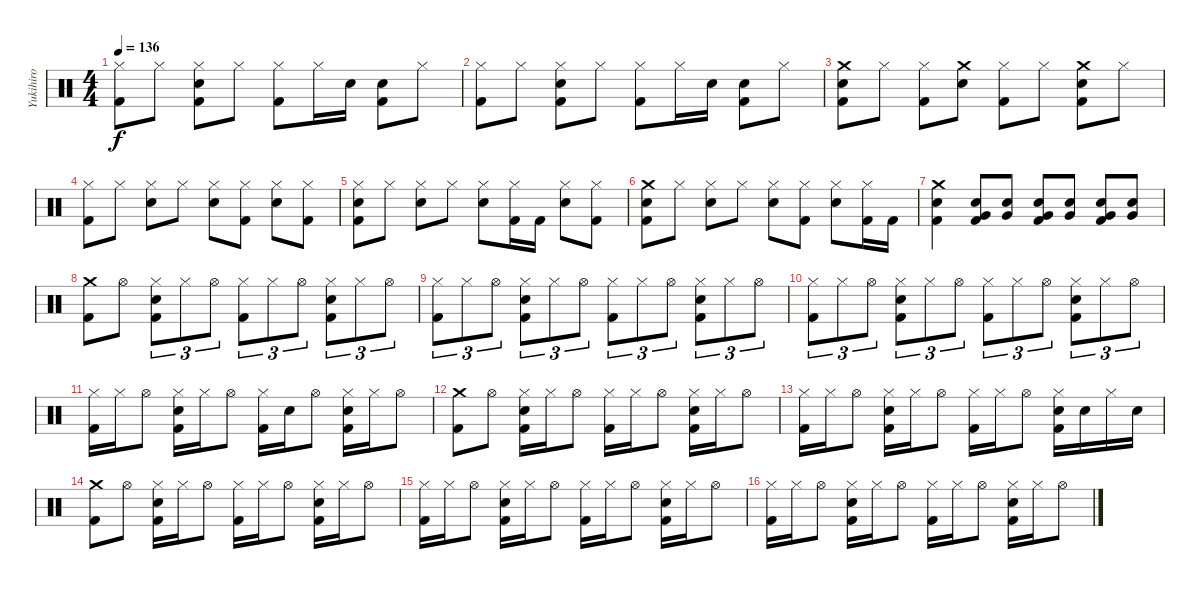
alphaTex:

\track ("Yukihiro" "Yukihiro") {instrument percussion}
\staff {score}
\articulation defaults
\ts (4 4)
\tempo 136
\clef neutral
\ks c
("Hi-Hat (closed)" "Kick (hit) 2").8{dy f} "Hi-Hat (closed)".8 ("Hi-Hat (closed)" "Snare (hit) 2" "Kick (hit) 2").8 "Hi-Hat (closed)".8 ("Hi-Hat (closed)" "Kick (hit) 2").8 "Hi-Hat (closed)".16 "Snare (hit) 2".16 ("Snare (hit) 2" "Kick (hit) 2").8 "Hi-Hat (closed)".8 |
("Hi-Hat (closed)" "Kick (hit) 2").8 "Hi-Hat (closed)".8 ("Hi-Hat (closed)" "Snare (hit) 2" "Kick (hit) 2").8 "Hi-Hat (closed)".8 ("Hi-Hat (closed)" "Kick (hit) 2").8 "Hi-Hat (closed)".16 "Snare (hit) 2".16 ("Snare (hit) 2" "Kick (hit) 2").8 "Hi-Hat (closed)".8 |
("Crash medium (hit)" "Snare (hit) 2" "Kick (hit) 2").8 "Hi-Hat (closed)".8 ("Hi-Hat (closed)" "Kick (hit) 2").8 ("Crash medium (hit)" "Snare (hit) 2").8 ("Hi-Hat (closed)" "Kick (hit) 2").8 "Hi-Hat (closed)".8 ("Crash medium (hit)" "Snare (hit) 2" "Kick (hit) 2").8 "Hi-Hat (closed)".8 |
("Hi-Hat (closed)" "Kick (hit) 2").8 "Hi-Hat (closed)".8 ("Hi-Hat (closed)" "Snare (hit) 2").8 "Hi-Hat (closed)".8 ("Hi-Hat (closed)" "Snare (hit) 2").8 ("Hi-Hat (closed)" "Kick (hit) 2").8 ("Hi-Hat (closed)" "Snare (hit) 2").8 ("Hi-Hat (closed)" "Kick (hit) 2").8 |
("Hi-Hat (closed)" "Snare (hit) 2" "Kick (hit) 2").8 "Hi-Hat (closed)".8 ("Hi-Hat (closed)" "Snare (hit) 2").8 "Hi-Hat (closed)".8 ("Hi-Hat (closed)" "Snare (hit) 2").8 ("Hi-Hat (closed)" "Kick (hit) 2").16 "Kick (hit) 2".16 ("Hi-Hat (closed)" "Snare (hit) 2").8 ("Hi-Hat (closed)" "Kick (hit) 2").8 |
("Crash medium (hit)" "Snare (hit) 2" "Kick (hit) 2").8 "Hi-Hat (closed)".8 ("Hi-Hat (closed)" "Snare (hit) 2").8 "Hi-Hat (closed)".8 ("Hi-Hat (closed)" "Snare (hit) 2").8 ("Hi-Hat (closed)" "Kick (hit) 2").8 ("Hi-Hat (closed)" "Snare (hit) 2").8 ("Hi-Hat (closed)" "Kick (hit) 2").16 "Kick (hit) 2".16 |
("Crash medium (hit)" "Snare (hit) 2" "Kick (hit) 2").4 ("Snare (hit) 2" "Very Low Tom (hit)" "Kick (hit) 2").8 ("Snare (hit) 2" "Very Low Tom (hit)").8 ("Snare (hit) 2" "Very Low Tom (hit)" "Kick (hit) 2").8 ("Snare (hit) 2" "Very Low Tom (hit)").8 ("Snare (hit) 2" "Very Low Tom (hit)" "Kick (hit) 2").8 ("Snare (hit) 2" "Very Low Tom (hit)").8 |
("Crash medium (hit)" "Kick (hit) 2").8 "Hi-Hat (open)".8 ("Hi-Hat (closed)" "Snare (hit) 2" "Kick (hit) 2").8{tu (3 2)} "Hi-Hat (closed)".8{tu (3 2)} "Hi-Hat (open)".8{tu (3 2)} ("Hi-Hat (closed)" "Kick (hit) 2").8{tu (3 2)} "Hi-Hat (closed)".8{tu (3 2)} "Hi-Hat (open)".8{tu (3 2)} ("Hi-Hat (closed)" "Snare (hit) 2" "Kick (hit) 2").8{tu (3 2)} "Hi-Hat (closed)".8{tu (3 2)} "Hi-Hat (open)".8{tu (3 2)} |
("Hi-Hat (closed)" "Kick (hit) 2").8{tu (3 2)} "Hi-Hat (closed)".8{tu (3 2)} "Hi-Hat (open)".8{tu (3 2)} ("Hi-Hat (closed)" "Snare (hit) 2" "Kick (hit) 2").8{tu (3 2)} "Hi-Hat (closed)".8{tu (3 2)} "Hi-Hat (open)".8{tu (3 2)} ("Hi-Hat (closed)" "Kick (hit) 2").8{tu (3 2)} "Hi-Hat (closed)".8{tu (3 2)} "Hi-Hat (open)".8{tu (3 2)} ("Hi-Hat (closed)" "Snare (hit) 2" "Kick (hit) 2").8{tu (3 2)} "Hi-Hat (closed)".8{tu (3 2)} "Hi-Hat (open)".8{tu (3 2)} |
("Hi-Hat (closed)" "Kick (hit) 2").8{tu (3 2)} "Hi-Hat (closed)".8{tu (3 2)} "Hi-Hat (open)".8{tu (3 2)} ("Hi-Hat (closed)" "Snare (hit) 2" "Kick (hit) 2").8{tu (3 2)} "Hi-Hat (closed)".8{tu (3 2)} "Hi-Hat (open)".8{tu (3 2)} ("Hi-Hat (closed)" "Kick (hit) 2").8{tu (3 2)} "Hi-Hat (closed)".8{tu (3 2)} "Hi-Hat (open)".8{tu (3 2)} ("Hi-Hat (closed)" "Snare (hit) 2" "Kick (hit) 2").8{tu (3 2)} "Hi-Hat (closed)".8{tu (3 2)} "Hi-Hat (open)".8{tu (3 2)} |
("Hi-Hat (closed)" "Kick (hit) 2").16 "Hi-Hat (closed)".16 "Hi-Hat (open)".8 ("Hi-Hat (closed)" "Snare (hit) 2" "Kick (hit) 2").16 "Hi-Hat (closed)".16 "Hi-Hat (open)".8 ("Hi-Hat (closed)" "Kick (hit) 2").16 "Snare (hit) 2".16 "Hi-Hat (open)".8 ("Hi-Hat (closed)" "Snare (hit) 2" "Kick (hit) 2").16 "Hi-Hat (closed)".16 "Hi-Hat (open)".8 |
("Crash medium (hit)" "Kick (hit) 2").8 "Hi-Hat (open)".8 ("Hi-Hat (closed)" "Snare (hit) 2" "Kick (hit) 2").16 "Hi-Hat (closed)".16 "Hi-Hat (open)".8 ("Hi-Hat (closed)" "Kick (hit) 2").16 "Hi-Hat (closed)".16 "Hi-Hat (open)".8 ("Hi-Hat (closed)" "Snare (hit) 2" "Kick (hit) 2").16 "Hi-Hat (closed)".16 "Hi-Hat (open)".8 |
("Hi-Hat (closed)" "Kick (hit) 2").16 "Hi-Hat (closed)".16 "Hi-Hat (open)".8 ("Hi-Hat (closed)" "Snare (hit) 2" "Kick (hit) 2").16 "Hi-Hat (closed)".16 "Hi-Hat (open)".8 ("Hi-Hat (closed)" "Kick (hit) 2").16 "Hi-Hat (closed)".16 "Hi-Hat (open)".8 ("Hi-Hat (closed)" "Snare (hit) 2" "Kick (hit) 2").16 "Snare (hit) 2".16 "Hi-Hat (closed)".16 "Snare (hit) 2".16 |
("Crash medium (hit)" "Kick (hit) 2").8 "Hi-Hat (open)".8 ("Hi-Hat (closed)" "Snare (hit) 2" "Kick (hit) 2").16 "Hi-Hat (closed)".16 "Hi-Hat (open)".8 ("Hi-Hat (closed)" "Kick (hit) 2").16 "Hi-Hat (closed)".16 "Hi-Hat (open)".8 ("Hi-Hat (closed)" "Snare (hit) 2" "Kick (hit) 2").16 "Hi-Hat (closed)".16 "Hi-Hat (open)".8 |
("Hi-Hat (closed)" "Kick (hit) 2").16 "Hi-Hat (closed)".16 "Hi-Hat (open)".8 ("Hi-Hat (closed)" "Snare (hit) 2" "Kick (hit) 2").16 "Hi-Hat (closed)".16 "Hi-Hat (open)".8 ("Hi-Hat (closed)" "Kick (hit) 2").16 "Hi-Hat (closed)".16 "Hi-Hat (open)".8 ("Hi-Hat (closed)" "Snare (hit) 2" "Kick (hit) 2").16 "Hi-Hat (closed)".16 "Hi-Hat (open)".8 |
("Hi-Hat (closed)" "Kick (hit) 2").16 "Hi-Hat (closed)".16 "Hi-Hat (open)".8 ("Hi-Hat (closed)" "Snare (hit) 2" "Kick (hit) 2").16 "Hi-Hat (closed)".16 "Hi-Hat (open)".8 ("Hi-Hat (closed)" "Kick (hit) 2").16 "Hi-Hat (closed)".16 "Hi-Hat (open)".8 ("Hi-Hat (closed)" "Snare (hit) 2" "Kick (hit) 2").16 "Hi-Hat (closed)".16 "Hi-Hat (open)".8
